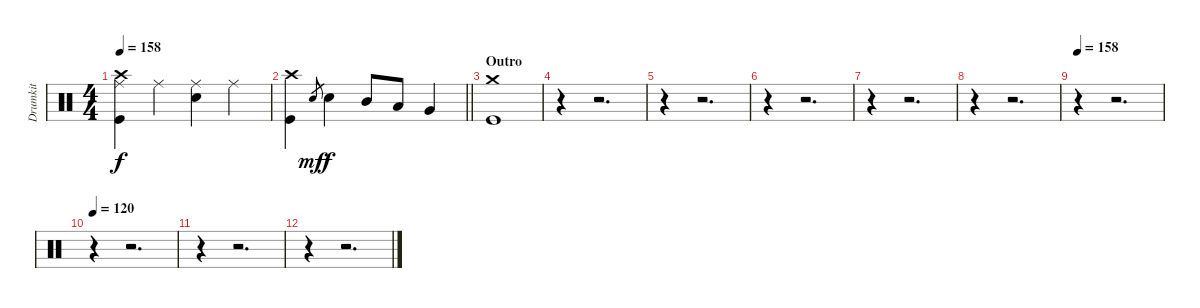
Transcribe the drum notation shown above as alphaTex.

\track ("Drumkit" "Drumkit") {instrument percussion}
\staff {score}
\articulation defaults
\ts (4 4)
\tempo 158
\clef neutral
\ks c
("Crash high (hit)" "Ride (middle)" "Kick (hit)").4{dy f} "Ride (middle)".4 ("Ride (middle)" "Snare (hit) 2").4 "Ride (middle)".4 |
\barLineRight lightlight
("Crash high (hit)" "Kick (hit)").4 "Snare (hit)".8{gr dy mf} "Snare (hit) 2".4{dy f} "Mid Tom (hit)".8 "Low Tom (hit)".8 "Very Low Tom (hit)".4 |
\section ("" "Outro")
("Crash medium (hit)" "Kick (hit)").1 |
r.4 r.2{d} |
r.4 r.2{d} |
r.4 r.2{d} |
r.4 r.2{d} |
r.4 r.2{d} |
\tempo 158
r.4 r.2{d} |
\tempo 120
r.4 r.2{d} |
r.4 r.2{d} |
r.4 r.2{d}
